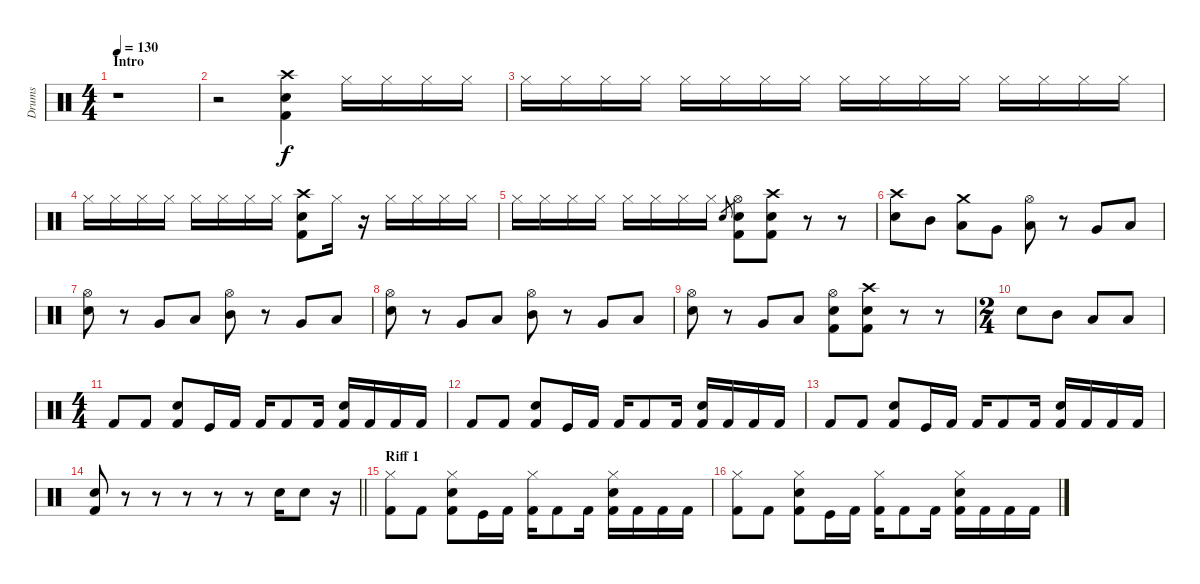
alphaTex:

\track ("Drums" "Drums") {instrument percussion}
\staff {score}
\articulation defaults
\ts (4 4)
\section ("" "Intro")
\tempo 130
\clef neutral
\ks c
r.1{dy f} |
r.2 ("Crash high (hit)" "Electric Snare (hit)" "Kick (hit) 2").4 "Hi-Hat (closed)".16 "Hi-Hat (closed)".16 "Hi-Hat (closed)".16 "Hi-Hat (closed)".16 |
"Hi-Hat (closed)".16 "Hi-Hat (closed)".16 "Hi-Hat (closed)".16 "Hi-Hat (closed)".16 "Hi-Hat (closed)".16 "Hi-Hat (closed)".16 "Hi-Hat (closed)".16 "Hi-Hat (closed)".16 "Hi-Hat (closed)".16 "Hi-Hat (closed)".16 "Hi-Hat (closed)".16 "Hi-Hat (closed)".16 "Hi-Hat (closed)".16 "Hi-Hat (closed)".16 "Hi-Hat (closed)".16 "Hi-Hat (closed)".16 |
"Hi-Hat (closed)".16 "Hi-Hat (closed)".16 "Hi-Hat (closed)".16 "Hi-Hat (closed)".16 "Hi-Hat (closed)".16 "Hi-Hat (closed)".16 "Hi-Hat (closed)".16 "Hi-Hat (closed)".16 ("Crash high (hit)" "Electric Snare (hit)" "Kick (hit) 2").8 "Hi-Hat (closed)".16 r.16 "Hi-Hat (closed)".16 "Hi-Hat (closed)".16 "Hi-Hat (closed)".16 "Hi-Hat (closed)".16 |
"Hi-Hat (closed)".16 "Hi-Hat (closed)".16 "Hi-Hat (closed)".16 "Hi-Hat (closed)".16 "Hi-Hat (closed)".16 "Hi-Hat (closed)".16 "Hi-Hat (closed)".16 "Hi-Hat (closed)".16 "Electric Snare (hit)".8{gr} ("Hi-Hat (open)" "Electric Snare (hit)" "Kick (hit) 2").8 ("Crash high (hit)" "Electric Snare (hit)" "Kick (hit) 2").8 r.8 r.8 |
("Crash high (hit)" "Electric Snare (hit)").8 "Mid Tom (hit)".8 ("Crash medium (hit)" "Low Tom (hit)").8 "Very Low Tom (hit)".8 ("Hi-Hat (open)" "Low Tom (hit)").8 r.8 "Very Low Tom (hit)".8 "Low Floor Tom (hit)".8 |
("Hi-Hat (open)" "Electric Snare (hit)").8 r.8 "Very Low Tom (hit)".8 "Low Floor Tom (hit)".8 ("Hi-Hat (open)" "Mid Tom (hit)").8 r.8 "Very Low Tom (hit)".8 "Low Floor Tom (hit)".8 |
("Hi-Hat (open)" "Electric Snare (hit)").8 r.8 "Very Low Tom (hit)".8 "Low Floor Tom (hit)".8 ("Hi-Hat (open)" "Mid Tom (hit)").8 r.8 "Very Low Tom (hit)".8 "Low Floor Tom (hit)".8 |
("Hi-Hat (open)" "Electric Snare (hit)").8 r.8 "Very Low Tom (hit)".8 "Low Floor Tom (hit)".8 ("Hi-Hat (open)" "Electric Snare (hit)" "Kick (hit) 2").8 ("Crash high (hit)" "Electric Snare (hit)" "Kick (hit) 2").8 r.8 r.8 |
\ts (2 4)
"Electric Snare (hit)".8 "Mid Tom (hit)".8 "Low Tom (hit)".8 "Low Floor Tom (hit)".8 |
\ts (4 4)
"Kick (hit) 2".8 "Kick (hit) 2".8 ("Electric Snare (hit)" "Kick (hit) 2").8 "Kick (hit)".16 "Kick (hit) 2".16 "Kick (hit) 2".16 "Kick (hit) 2".8 "Kick (hit) 2".16 ("Electric Snare (hit)" "Kick (hit) 2").16 "Kick (hit) 2".16 "Kick (hit) 2".16 "Kick (hit) 2".16 |
"Kick (hit) 2".8 "Kick (hit) 2".8 ("Electric Snare (hit)" "Kick (hit) 2").8 "Kick (hit)".16 "Kick (hit) 2".16 "Kick (hit) 2".16 "Kick (hit) 2".8 "Kick (hit) 2".16 ("Electric Snare (hit)" "Kick (hit) 2").16 "Kick (hit) 2".16 "Kick (hit) 2".16 "Kick (hit) 2".16 |
"Kick (hit) 2".8 "Kick (hit) 2".8 ("Electric Snare (hit)" "Kick (hit) 2").8 "Kick (hit)".16 "Kick (hit) 2".16 "Kick (hit) 2".16 "Kick (hit) 2".8 "Kick (hit) 2".16 ("Electric Snare (hit)" "Kick (hit) 2").16 "Kick (hit) 2".16 "Kick (hit) 2".16 "Kick (hit) 2".16 |
\barLineRight lightlight
("Electric Snare (hit)" "Kick (hit) 2").8 r.8 r.8 r.8 r.8 r.8 "Electric Snare (hit)".16 "Snare (hit) 2".8 r.16 |
\section ("" "Riff 1")
("Hi-Hat (closed)" "Kick (hit) 2").8 "Kick (hit) 2".8 ("Hi-Hat (closed)" "Electric Snare (hit)" "Kick (hit) 2").8 "Kick (hit)".16 "Kick (hit) 2".16 ("Hi-Hat (closed)" "Kick (hit) 2").16 "Kick (hit) 2".8 "Kick (hit) 2".16 ("Hi-Hat (closed)" "Electric Snare (hit)" "Kick (hit) 2").16 "Kick (hit) 2".16 "Kick (hit) 2".16 "Kick (hit) 2".16 |
("Hi-Hat (closed)" "Kick (hit) 2").8 "Kick (hit) 2".8 ("Hi-Hat (closed)" "Electric Snare (hit)" "Kick (hit) 2").8 "Kick (hit)".16 "Kick (hit) 2".16 ("Hi-Hat (closed)" "Kick (hit) 2").16 "Kick (hit) 2".8 "Kick (hit) 2".16 ("Hi-Hat (closed)" "Electric Snare (hit)" "Kick (hit) 2").16 "Kick (hit) 2".16 "Kick (hit) 2".16 "Kick (hit) 2".16
